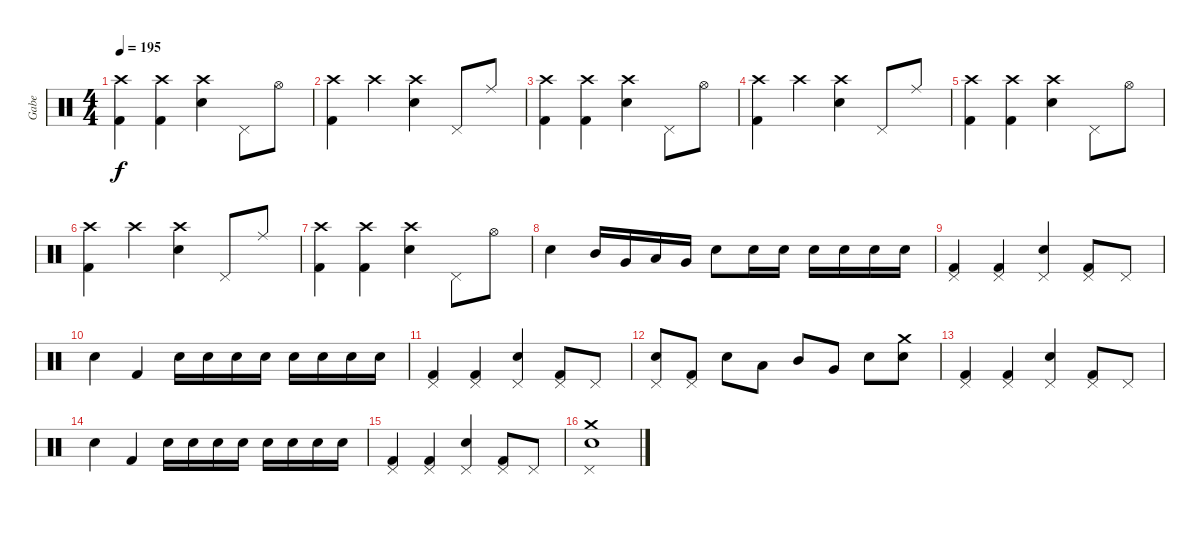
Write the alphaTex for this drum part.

\track ("Gabe" "Gabe") {instrument percussion}
\staff {score}
\articulation defaults
\ts (4 4)
\tempo 195
\clef neutral
\ks c
("Crash high (hit)" "Kick (hit) 2").4{dy f} ("Crash high (hit)" "Kick (hit) 2").4 ("Crash high (hit)" "Electric Snare (hit)").4 "Pedal Hi-Hat (hit)".8 "Hi-Hat (open)".8 |
("Crash high (hit)" "Kick (hit) 2").4 "Crash high (hit)".4 ("Crash high (hit)" "Electric Snare (hit)").4 "Pedal Hi-Hat (hit)".8 "Ride (middle)".8 |
("Crash high (hit)" "Kick (hit) 2").4 ("Crash high (hit)" "Kick (hit) 2").4 ("Crash high (hit)" "Electric Snare (hit)").4 "Pedal Hi-Hat (hit)".8 "Hi-Hat (open)".8 |
("Crash high (hit)" "Kick (hit) 2").4 "Crash high (hit)".4 ("Crash high (hit)" "Electric Snare (hit)").4 "Pedal Hi-Hat (hit)".8 "Ride (middle)".8 |
("Crash high (hit)" "Kick (hit) 2").4 ("Crash high (hit)" "Kick (hit) 2").4 ("Crash high (hit)" "Electric Snare (hit)").4 "Pedal Hi-Hat (hit)".8 "Hi-Hat (open)".8 |
("Crash high (hit)" "Kick (hit) 2").4 "Crash high (hit)".4 ("Crash high (hit)" "Electric Snare (hit)").4 "Pedal Hi-Hat (hit)".8 "Ride (middle)".8 |
("Crash high (hit)" "Kick (hit) 2").4 ("Crash high (hit)" "Kick (hit) 2").4 ("Crash high (hit)" "Electric Snare (hit)").4 "Pedal Hi-Hat (hit)".8 "Hi-Hat (open)".8 |
"Electric Snare (hit)".4 "Mid Tom (hit)".16 "Very Low Tom (hit)".16 "Low Tom (hit)".16 "Very Low Tom (hit)".16 "Electric Snare (hit)".8 "Electric Snare (hit)".16 "Electric Snare (hit)".16 "Electric Snare (hit)".16 "Electric Snare (hit)".16 "Electric Snare (hit)".16 "Electric Snare (hit)".16 |
("Pedal Hi-Hat (hit)" "Kick (hit) 2").4 ("Pedal Hi-Hat (hit)" "Kick (hit) 2").4 ("Pedal Hi-Hat (hit)" "Electric Snare (hit)").4 ("Pedal Hi-Hat (hit)" "Kick (hit) 2").8 "Pedal Hi-Hat (hit)".8 |
"Electric Snare (hit)".4 "Kick (hit) 2".4 "Electric Snare (hit)".16 "Electric Snare (hit)".16 "Electric Snare (hit)".16 "Electric Snare (hit)".16 "Electric Snare (hit)".16 "Electric Snare (hit)".16 "Electric Snare (hit)".16 "Electric Snare (hit)".16 |
("Pedal Hi-Hat (hit)" "Kick (hit) 2").4 ("Pedal Hi-Hat (hit)" "Kick (hit) 2").4 ("Pedal Hi-Hat (hit)" "Electric Snare (hit)").4 ("Pedal Hi-Hat (hit)" "Kick (hit) 2").8 "Pedal Hi-Hat (hit)".8 |
("Pedal Hi-Hat (hit)" "Electric Snare (hit)").8 ("Pedal Hi-Hat (hit)" "Kick (hit) 2").8 "Electric Snare (hit)".8 "Low Tom (hit)".8 "Mid Tom (hit)".8 "Very Low Tom (hit)".8 "Electric Snare (hit)".8 ("Crash medium (hit)" "Snare (hit)").8 |
("Pedal Hi-Hat (hit)" "Kick (hit) 2").4 ("Pedal Hi-Hat (hit)" "Kick (hit) 2").4 ("Pedal Hi-Hat (hit)" "Electric Snare (hit)").4 ("Pedal Hi-Hat (hit)" "Kick (hit) 2").8 "Pedal Hi-Hat (hit)".8 |
"Electric Snare (hit)".4 "Kick (hit) 2".4 "Electric Snare (hit)".16 "Electric Snare (hit)".16 "Electric Snare (hit)".16 "Electric Snare (hit)".16 "Electric Snare (hit)".16 "Electric Snare (hit)".16 "Electric Snare (hit)".16 "Electric Snare (hit)".16 |
("Pedal Hi-Hat (hit)" "Kick (hit) 2").4 ("Pedal Hi-Hat (hit)" "Kick (hit) 2").4 ("Pedal Hi-Hat (hit)" "Electric Snare (hit)").4 ("Pedal Hi-Hat (hit)" "Kick (hit) 2").8 "Pedal Hi-Hat (hit)".8 |
("Crash medium (hit)" "Pedal Hi-Hat (hit)" "Electric Snare (hit)").1
